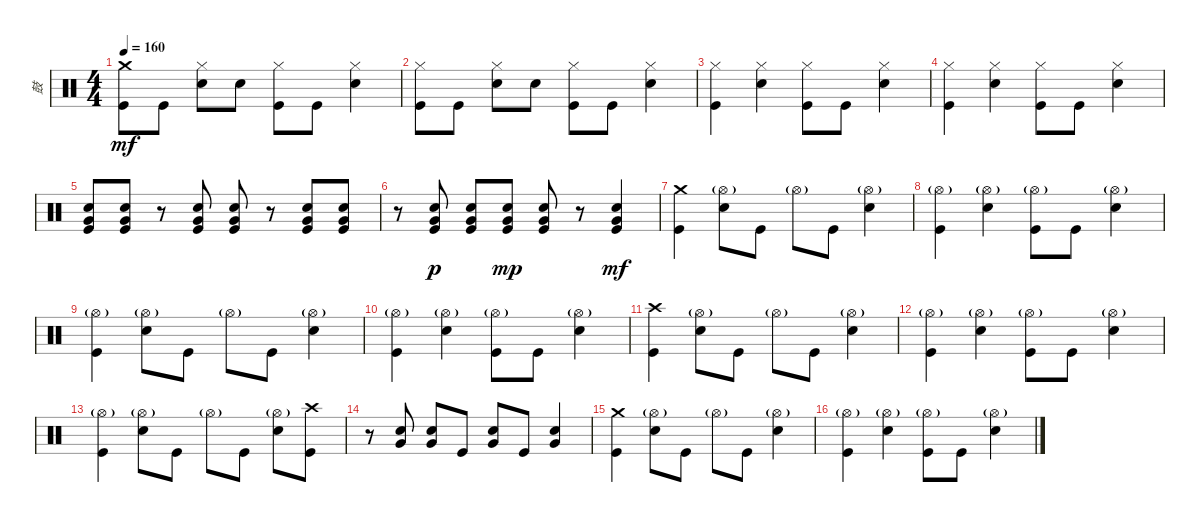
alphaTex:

\track ("鼓" "鼓") {instrument percussion}
\staff {score}
\articulation defaults
\ts (4 4)
\tempo 160
\clef neutral
\ks c
("Crash medium (hit)" "Kick (hit)").8{dy mf} "Kick (hit)".8 ("Snare (hit) 2" "Hi-Hat (closed)").8 "Snare (hit) 2".8 ("Kick (hit)" "Hi-Hat (closed)").8 "Kick (hit)".8 ("Snare (hit) 2" "Hi-Hat (closed)").4 |
("Kick (hit)" "Hi-Hat (closed)").8 "Kick (hit)".8 ("Snare (hit) 2" "Hi-Hat (closed)").8 "Snare (hit) 2".8 ("Kick (hit)" "Hi-Hat (closed)").8 "Kick (hit)".8 ("Snare (hit) 2" "Hi-Hat (closed)").4 |
("Kick (hit)" "Hi-Hat (closed)").4 ("Hi-Hat (closed)" "Snare (hit) 2").4 ("Kick (hit)" "Hi-Hat (closed)").8 "Kick (hit)".8 ("Snare (hit) 2" "Hi-Hat (closed)").4 |
("Kick (hit)" "Hi-Hat (closed)").4 ("Hi-Hat (closed)" "Snare (hit) 2").4 ("Kick (hit)" "Hi-Hat (closed)").8 "Kick (hit)".8 ("Snare (hit) 2" "Hi-Hat (closed)").4 |
("Kick (hit)" "Very Low Tom (hit)" "Snare (hit) 2").8 ("Kick (hit)" "Very Low Tom (hit)" "Snare (hit) 2").8 r.8 ("Kick (hit)" "Very Low Tom (hit)" "Snare (hit) 2").8 ("Kick (hit)" "Very Low Tom (hit)" "Snare (hit) 2").8 r.8 ("Kick (hit)" "Very Low Tom (hit)" "Snare (hit) 2").8 ("Kick (hit)" "Very Low Tom (hit)" "Snare (hit) 2").8 |
r.8 ("Kick (hit)" "Very Low Tom (hit)" "Snare (hit) 2").8{dy p} ("Kick (hit)" "Very Low Tom (hit)" "Snare (hit) 2").8 ("Kick (hit)" "Very Low Tom (hit)" "Snare (hit) 2").8{dy mp} ("Kick (hit)" "Very Low Tom (hit)" "Snare (hit) 2").8 r.8 ("Kick (hit)" "Very Low Tom (hit)" "Snare (hit) 2").4{dy mf} |
("Kick (hit)" "Crash medium (hit)").4 ("Snare (hit) 2" "Hi-Hat (open)"{g}).8 "Kick (hit)".8 "Hi-Hat (open)"{g}.8 "Kick (hit)".8 ("Snare (hit) 2" "Hi-Hat (open)"{g}).4 |
("Kick (hit)" "Hi-Hat (open)"{g}).4 ("Hi-Hat (open)"{g} "Snare (hit) 2").4 ("Kick (hit)" "Hi-Hat (open)"{g}).8 "Kick (hit)".8 ("Snare (hit) 2" "Hi-Hat (open)"{g}).4 |
("Kick (hit)" "Hi-Hat (open)"{g}).4 ("Snare (hit) 2" "Hi-Hat (open)"{g}).8 "Kick (hit)".8 "Hi-Hat (open)"{g}.8 "Kick (hit)".8 ("Snare (hit) 2" "Hi-Hat (open)"{g}).4 |
("Kick (hit)" "Hi-Hat (open)"{g}).4 ("Hi-Hat (open)"{g} "Snare (hit) 2").4 ("Kick (hit)" "Hi-Hat (open)"{g}).8 "Kick (hit)".8 ("Snare (hit) 2" "Hi-Hat (open)"{g}).4 |
("Kick (hit)" "Crash high (hit)").4 ("Snare (hit) 2" "Hi-Hat (open)"{g}).8 "Kick (hit)".8 "Hi-Hat (open)"{g}.8 "Kick (hit)".8 ("Snare (hit) 2" "Hi-Hat (open)"{g}).4 |
("Kick (hit)" "Hi-Hat (open)"{g}).4 ("Hi-Hat (open)"{g} "Snare (hit) 2").4 ("Kick (hit)" "Hi-Hat (open)"{g}).8 "Kick (hit)".8 ("Snare (hit) 2" "Hi-Hat (open)"{g}).4 |
("Kick (hit)" "Hi-Hat (open)"{g}).4 ("Snare (hit) 2" "Hi-Hat (open)"{g}).8 "Kick (hit)".8 "Hi-Hat (open)"{g}.8 "Kick (hit)".8 ("Snare (hit) 2" "Hi-Hat (open)"{g}).8 ("Kick (hit)" "Crash high (hit)").8 |
r.8 ("Snare (hit) 2" "Very Low Tom (hit)").8 ("Snare (hit) 2" "Very Low Tom (hit)").8 "Kick (hit)".8 ("Snare (hit) 2" "Very Low Tom (hit)").8 "Kick (hit)".8 ("Snare (hit) 2" "Very Low Tom (hit)").4 |
("Kick (hit)" "Crash medium (hit)").4 ("Snare (hit) 2" "Hi-Hat (open)"{g}).8 "Kick (hit)".8 "Hi-Hat (open)"{g}.8 "Kick (hit)".8 ("Snare (hit) 2" "Hi-Hat (open)"{g}).4 |
("Kick (hit)" "Hi-Hat (open)"{g}).4 ("Hi-Hat (open)"{g} "Snare (hit) 2").4 ("Kick (hit)" "Hi-Hat (open)"{g}).8 "Kick (hit)".8 ("Snare (hit) 2" "Hi-Hat (open)"{g}).4
